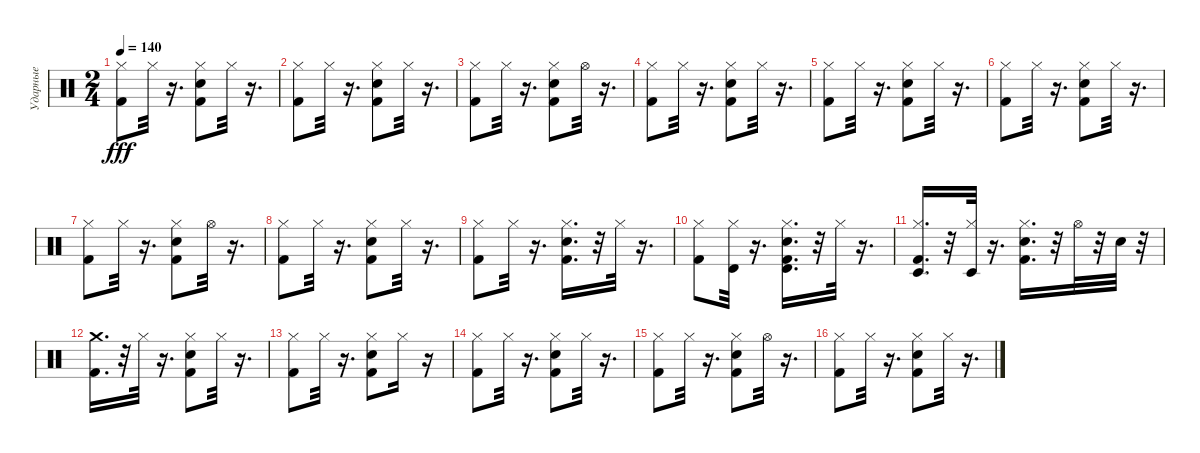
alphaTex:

\track ("Ударные" "Ударные") {instrument percussion}
\staff {score}
\articulation defaults
\ts (2 4)
\tempo 140
\clef neutral
\ks c
("Kick (hit) 2" "Hi-Hat (closed)").8{dy fff} "Hi-Hat (closed)".32 r.16{d} ("Hi-Hat (closed)" "Snare (hit) 2" "Kick (hit) 2").8 "Hi-Hat (closed)".32 r.16{d} |
("Kick (hit) 2" "Hi-Hat (closed)").8 "Hi-Hat (closed)".32 r.16{d} ("Snare (hit) 2" "Kick (hit) 2" "Hi-Hat (closed)").8 "Hi-Hat (closed)".32 r.16{d} |
("Kick (hit) 2" "Hi-Hat (closed)").8 "Hi-Hat (closed)".32 r.16{d} ("Kick (hit) 2" "Snare (hit) 2" "Hi-Hat (closed)").8 "Hi-Hat (open)".32 r.16{d} |
("Kick (hit) 2" "Hi-Hat (closed)").8 "Hi-Hat (closed)".32 r.16{d} ("Hi-Hat (closed)" "Snare (hit) 2" "Kick (hit) 2").8 "Hi-Hat (closed)".32 r.16{d} |
("Kick (hit) 2" "Hi-Hat (closed)").8 "Hi-Hat (closed)".32 r.16{d} ("Hi-Hat (closed)" "Snare (hit) 2" "Kick (hit) 2").8 "Hi-Hat (closed)".32 r.16{d} |
("Kick (hit) 2" "Hi-Hat (closed)").8 "Hi-Hat (closed)".32 r.16{d} ("Snare (hit) 2" "Kick (hit) 2" "Hi-Hat (closed)").8 "Hi-Hat (closed)".32 r.16{d} |
("Kick (hit) 2" "Hi-Hat (closed)").8 "Hi-Hat (closed)".32 r.16{d} ("Snare (hit) 2" "Kick (hit) 2" "Hi-Hat (closed)").8 "Hi-Hat (open)".32 r.16{d} |
("Kick (hit) 2" "Hi-Hat (closed)").8 "Hi-Hat (closed)".32 r.16{d} ("Snare (hit) 2" "Kick (hit) 2" "Hi-Hat (closed)").8 "Hi-Hat (closed)".32 r.16{d} |
("Kick (hit) 2" "Hi-Hat (closed)").8 "Hi-Hat (closed)".32 r.16{d} ("Hi-Hat (closed)" "Snare (hit) 2" "Kick (hit) 2").16{d} r.32 "Hi-Hat (closed)".32 r.16{d} |
("Kick (hit) 2" "Hi-Hat (closed)").8 ("Timbale high (hit)" "Hi-Hat (closed)").32 r.16{d} ("Timbale high (hit)" "Snare (hit) 2" "Kick (hit) 2" "Hi-Hat (closed)").16{d} r.32 "Hi-Hat (closed)".32 r.16{d} |
("Timbale low (hit)" "Hi-Hat (closed)" "Kick (hit) 2").16{d} r.32 ("Timbale low (hit)" "Hi-Hat (closed)").32 r.16{d} ("Kick (hit) 2" "Hi-Hat (closed)" "Snare (hit) 2").16{d} r.32 "Hi-Hat (open)".32 r.32 "Snare (hit) 2".32 r.32 |
("Kick (hit) 2" "Crash medium (hit)").16{d} r.32 "Hi-Hat (closed)".32 r.16{d} ("Kick (hit) 2" "Snare (hit) 2" "Hi-Hat (closed)").8 "Hi-Hat (closed)".32 r.16{d} |
("Kick (hit) 2" "Hi-Hat (closed)").8 "Hi-Hat (closed)".32 r.16{d} ("Kick (hit) 2" "Hi-Hat (closed)" "Snare (hit) 2").8 "Hi-Hat (closed)".16 r.16 |
("Kick (hit) 2" "Hi-Hat (closed)").8 "Hi-Hat (closed)".32 r.16{d} ("Hi-Hat (closed)" "Snare (hit) 2" "Kick (hit) 2").8 "Hi-Hat (closed)".32 r.16{d} |
("Kick (hit) 2" "Hi-Hat (closed)").8 "Hi-Hat (closed)".32 r.16{d} ("Kick (hit) 2" "Snare (hit) 2" "Hi-Hat (closed)").8 "Hi-Hat (open)".32 r.16{d} |
("Kick (hit) 2" "Hi-Hat (closed)").8 "Hi-Hat (closed)".32 r.16{d} ("Snare (hit) 2" "Kick (hit) 2" "Hi-Hat (closed)").8 "Hi-Hat (closed)".32 r.16{d}
